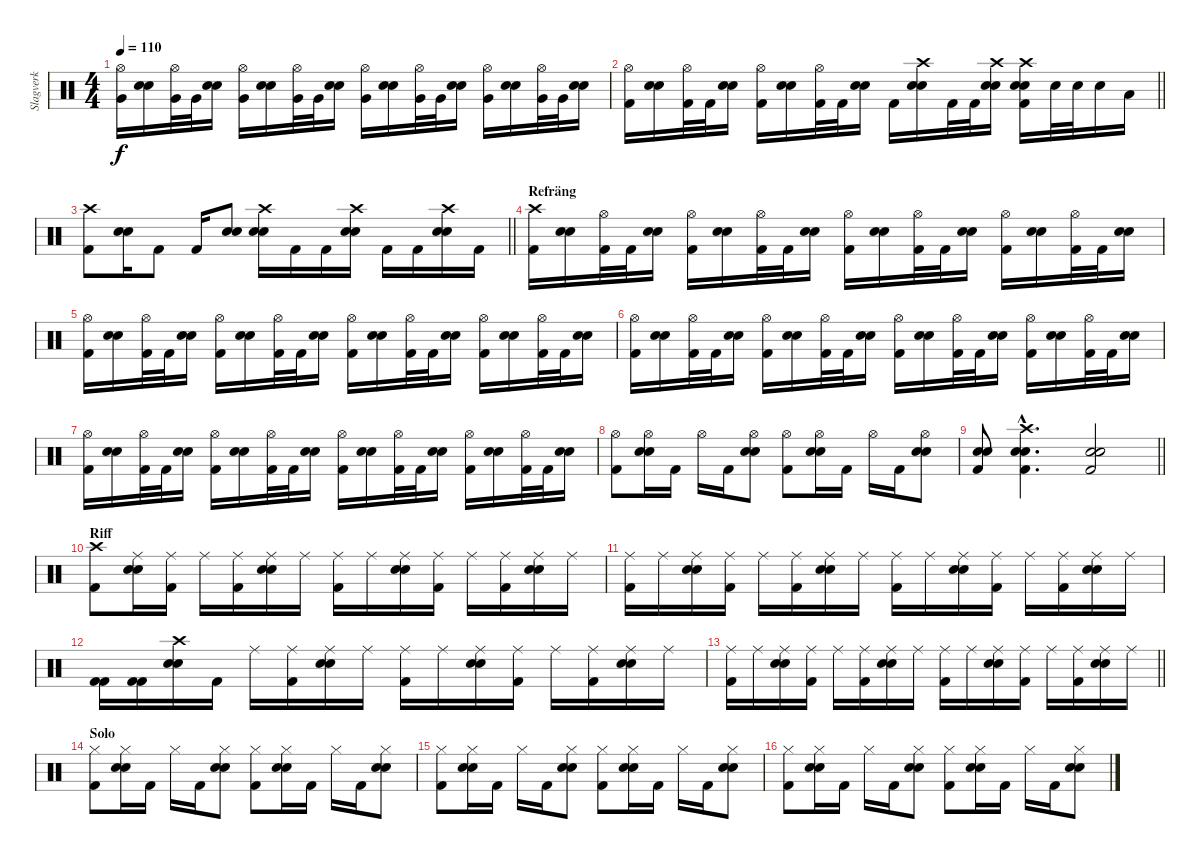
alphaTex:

\track ("Slagverk" "Slagverk") {instrument percussion}
\staff {score}
\articulation defaults
\ts (4 4)
\tempo 110
\clef neutral
\ks c
("Very Low Tom (hit)" "Hi-Hat (open)").16{dy f} ("Electric Snare (hit)" "Electric Snare (hit)").16 ("Very Low Tom (hit)" "Hi-Hat (open)").32 "Very Low Tom (hit)".32 ("Electric Snare (hit)" "Electric Snare (hit)").16 ("Very Low Tom (hit)" "Hi-Hat (open)").16 ("Electric Snare (hit)" "Electric Snare (hit)").16 ("Very Low Tom (hit)" "Hi-Hat (open)").32 "Very Low Tom (hit)".32 ("Electric Snare (hit)" "Electric Snare (hit)").16 ("Very Low Tom (hit)" "Hi-Hat (open)").16 ("Electric Snare (hit)" "Electric Snare (hit)").16 ("Very Low Tom (hit)" "Hi-Hat (open)").32 "Very Low Tom (hit)".32 ("Electric Snare (hit)" "Electric Snare (hit)").16 ("Very Low Tom (hit)" "Hi-Hat (open)").16 ("Electric Snare (hit)" "Electric Snare (hit)").16 ("Very Low Tom (hit)" "Hi-Hat (open)").32 "Very Low Tom (hit)".32 ("Electric Snare (hit)" "Electric Snare (hit)").16 |
\barLineRight lightlight
("Hi-Hat (open)" "Kick (hit) 2").16 ("Electric Snare (hit)" "Electric Snare (hit)").16 ("Hi-Hat (open)" "Kick (hit) 2").32 "Kick (hit) 2".32 ("Electric Snare (hit)" "Electric Snare (hit)").16 ("Hi-Hat (open)" "Kick (hit) 2").16 ("Electric Snare (hit)" "Electric Snare (hit)").16 ("Hi-Hat (open)" "Kick (hit) 2").32 "Kick (hit) 2".32 ("Electric Snare (hit)" "Electric Snare (hit)").16 "Kick (hit) 2".16 ("Crash high (hit)" "Electric Snare (hit)" "Electric Snare (hit)").16 "Kick (hit) 2".32 "Kick (hit) 2".32 ("Crash high (hit)" "Electric Snare (hit)" "Electric Snare (hit)").16 ("Crash high (hit)" "Electric Snare (hit)" "Electric Snare (hit)" "Kick (hit) 2").16 "Electric Snare (hit)".32 "Electric Snare (hit)".32 "Electric Snare (hit)".16 "Low Floor Tom (hit)".16 |
\barLineRight lightlight
("Crash high (hit)" "Kick (hit) 2").8 ("Electric Snare (hit)" "Electric Snare (hit)").16 "Kick (hit) 2".8 "Kick (hit) 2".16 ("Electric Snare (hit)" "Electric Snare (hit)").8 ("Crash high (hit)" "Electric Snare (hit)" "Electric Snare (hit)").16 "Kick (hit) 2".16 "Kick (hit) 2".16 ("Crash high (hit)" "Electric Snare (hit)" "Electric Snare (hit)").16 "Kick (hit) 2".16 "Kick (hit) 2".16 ("Crash high (hit)" "Electric Snare (hit)" "Electric Snare (hit)").16 "Kick (hit) 2".16 |
\section ("" "Refräng")
("Crash high (hit)" "Kick (hit) 2").16 ("Electric Snare (hit)" "Electric Snare (hit)").16 ("Hi-Hat (open)" "Kick (hit) 2").32 "Kick (hit) 2".32 ("Electric Snare (hit)" "Electric Snare (hit)").16 ("Hi-Hat (open)" "Kick (hit) 2").16 ("Electric Snare (hit)" "Electric Snare (hit)").16 ("Hi-Hat (open)" "Kick (hit) 2").32 "Kick (hit) 2".32 ("Electric Snare (hit)" "Electric Snare (hit)").16 ("Hi-Hat (open)" "Kick (hit) 2").16 ("Electric Snare (hit)" "Electric Snare (hit)").16 ("Hi-Hat (open)" "Kick (hit) 2").32 "Kick (hit) 2".32 ("Electric Snare (hit)" "Electric Snare (hit)").16 ("Hi-Hat (open)" "Kick (hit) 2").16 ("Electric Snare (hit)" "Electric Snare (hit)").16 ("Hi-Hat (open)" "Kick (hit) 2").32 "Kick (hit) 2".32 ("Electric Snare (hit)" "Electric Snare (hit)").16 |
("Hi-Hat (open)" "Kick (hit) 2").16 ("Electric Snare (hit)" "Electric Snare (hit)").16 ("Hi-Hat (open)" "Kick (hit) 2").32 "Kick (hit) 2".32 ("Electric Snare (hit)" "Electric Snare (hit)").16 ("Hi-Hat (open)" "Kick (hit) 2").16 ("Electric Snare (hit)" "Electric Snare (hit)").16 ("Hi-Hat (open)" "Kick (hit) 2").32 "Kick (hit) 2".32 ("Electric Snare (hit)" "Electric Snare (hit)").16 ("Hi-Hat (open)" "Kick (hit) 2").16 ("Electric Snare (hit)" "Electric Snare (hit)").16 ("Hi-Hat (open)" "Kick (hit) 2").32 "Kick (hit) 2".32 ("Electric Snare (hit)" "Electric Snare (hit)").16 ("Hi-Hat (open)" "Kick (hit) 2").16 ("Electric Snare (hit)" "Electric Snare (hit)").16 ("Hi-Hat (open)" "Kick (hit) 2").32 "Kick (hit) 2".32 ("Electric Snare (hit)" "Electric Snare (hit)").16 |
("Hi-Hat (open)" "Kick (hit) 2").16 ("Electric Snare (hit)" "Electric Snare (hit)").16 ("Hi-Hat (open)" "Kick (hit) 2").32 "Kick (hit) 2".32 ("Electric Snare (hit)" "Electric Snare (hit)").16 ("Hi-Hat (open)" "Kick (hit) 2").16 ("Electric Snare (hit)" "Electric Snare (hit)").16 ("Hi-Hat (open)" "Kick (hit) 2").32 "Kick (hit) 2".32 ("Electric Snare (hit)" "Electric Snare (hit)").16 ("Hi-Hat (open)" "Kick (hit) 2").16 ("Electric Snare (hit)" "Electric Snare (hit)").16 ("Hi-Hat (open)" "Kick (hit) 2").32 "Kick (hit) 2".32 ("Electric Snare (hit)" "Electric Snare (hit)").16 ("Hi-Hat (open)" "Kick (hit) 2").16 ("Electric Snare (hit)" "Electric Snare (hit)").16 ("Hi-Hat (open)" "Kick (hit) 2").32 "Kick (hit) 2".32 ("Electric Snare (hit)" "Electric Snare (hit)").16 |
("Hi-Hat (open)" "Kick (hit) 2").16 ("Electric Snare (hit)" "Electric Snare (hit)").16 ("Hi-Hat (open)" "Kick (hit) 2").32 "Kick (hit) 2".32 ("Electric Snare (hit)" "Electric Snare (hit)").16 ("Hi-Hat (open)" "Kick (hit) 2").16 ("Electric Snare (hit)" "Electric Snare (hit)").16 ("Hi-Hat (open)" "Kick (hit) 2").32 "Kick (hit) 2".32 ("Electric Snare (hit)" "Electric Snare (hit)").16 ("Hi-Hat (open)" "Kick (hit) 2").16 ("Electric Snare (hit)" "Electric Snare (hit)").16 ("Hi-Hat (open)" "Kick (hit) 2").32 "Kick (hit) 2".32 ("Electric Snare (hit)" "Electric Snare (hit)").16 ("Hi-Hat (open)" "Kick (hit) 2").16 ("Electric Snare (hit)" "Electric Snare (hit)").16 ("Hi-Hat (open)" "Kick (hit) 2").32 "Kick (hit) 2".32 ("Electric Snare (hit)" "Electric Snare (hit)").16 |
("Hi-Hat (open)" "Kick (hit) 2").8 ("Hi-Hat (open)" "Electric Snare (hit)" "Electric Snare (hit)").16 "Kick (hit) 2".16 "Hi-Hat (open)".16 "Kick (hit) 2".16 ("Hi-Hat (open)" "Electric Snare (hit)" "Electric Snare (hit)").8 ("Hi-Hat (open)" "Kick (hit) 2").8 ("Hi-Hat (open)" "Electric Snare (hit)" "Electric Snare (hit)").16 "Kick (hit) 2".16 "Hi-Hat (open)".16 "Kick (hit) 2".16 ("Hi-Hat (open)" "Electric Snare (hit)" "Electric Snare (hit)").8 |
\barLineRight lightlight
("Electric Snare (hit)" "Electric Snare (hit)" "Kick (hit) 2").8 ("Crash high (hit)"{hac} "Electric Snare (hit)"{hac} "Electric Snare (hit)"{hac} "Kick (hit) 2"{hac}).4{d} ("Electric Snare (hit)" "Electric Snare (hit)" "Kick (hit) 2").2 |
\section ("" "Riff")
("Crash high (hit)" "Kick (hit) 2").8 ("Ride (middle)" "Electric Snare (hit)" "Electric Snare (hit)").16 ("Ride (middle)" "Kick (hit) 2").16 "Ride (middle)".16 ("Ride (middle)" "Kick (hit) 2").16 ("Ride (middle)" "Electric Snare (hit)" "Electric Snare (hit)").16 "Ride (middle)".16 ("Ride (middle)" "Kick (hit) 2").16 "Ride (middle)".16 ("Ride (middle)" "Electric Snare (hit)" "Electric Snare (hit)").16 ("Ride (middle)" "Kick (hit) 2").16 "Ride (middle)".16 ("Ride (middle)" "Kick (hit) 2").16 ("Ride (middle)" "Electric Snare (hit)" "Electric Snare (hit)").16 "Ride (middle)".16 |
("Ride (middle)" "Kick (hit) 2").16 "Ride (middle)".16 ("Ride (middle)" "Electric Snare (hit)" "Electric Snare (hit)").16 ("Ride (middle)" "Kick (hit) 2").16 "Ride (middle)".16 ("Ride (middle)" "Kick (hit) 2").16 ("Ride (middle)" "Electric Snare (hit)" "Electric Snare (hit)").16 "Ride (middle)".16 ("Ride (middle)" "Kick (hit) 2").16 "Ride (middle)".16 ("Ride (middle)" "Electric Snare (hit)" "Electric Snare (hit)").16 ("Ride (middle)" "Kick (hit) 2").16 "Ride (middle)".16 ("Ride (middle)" "Kick (hit) 2").16 ("Ride (middle)" "Electric Snare (hit)" "Electric Snare (hit)").16 "Ride (middle)".16 |
("Kick (hit) 2" "Kick (hit) 2").16 ("Kick (hit) 2" "Kick (hit) 2").16 ("Crash high (hit)" "Electric Snare (hit)" "Electric Snare (hit)").16 "Kick (hit) 2".16 "Ride (middle)".16 ("Ride (middle)" "Kick (hit) 2").16 ("Ride (middle)" "Electric Snare (hit)" "Electric Snare (hit)").16 "Ride (middle)".16 ("Ride (middle)" "Kick (hit) 2").16 "Ride (middle)".16 ("Ride (middle)" "Electric Snare (hit)" "Electric Snare (hit)").16 ("Ride (middle)" "Kick (hit) 2").16 "Ride (middle)".16 ("Ride (middle)" "Kick (hit) 2").16 ("Ride (middle)" "Electric Snare (hit)" "Electric Snare (hit)").16 "Ride (middle)".16 |
\barLineRight lightlight
("Ride (middle)" "Kick (hit) 2").16 "Ride (middle)".16 ("Ride (middle)" "Electric Snare (hit)" "Electric Snare (hit)").16 ("Ride (middle)" "Kick (hit) 2").16 "Ride (middle)".16 ("Ride (middle)" "Kick (hit) 2").16 ("Ride (middle)" "Electric Snare (hit)" "Electric Snare (hit)").16 "Ride (middle)".16 ("Ride (middle)" "Kick (hit) 2").16 "Ride (middle)".16 ("Ride (middle)" "Electric Snare (hit)" "Electric Snare (hit)").16 ("Ride (middle)" "Kick (hit) 2").16 "Ride (middle)".16 ("Ride (middle)" "Kick (hit) 2").16 ("Ride (middle)" "Electric Snare (hit)" "Electric Snare (hit)").16 "Ride (middle)".16 |
\section ("" "Solo")
("Hi-Hat (closed)" "Kick (hit) 2").8 ("Hi-Hat (closed)" "Electric Snare (hit)" "Electric Snare (hit)").16 "Kick (hit) 2".16 "Hi-Hat (closed)".16 "Kick (hit) 2".16 ("Hi-Hat (closed)" "Electric Snare (hit)" "Electric Snare (hit)").8 ("Hi-Hat (closed)" "Kick (hit) 2").8 ("Hi-Hat (closed)" "Electric Snare (hit)" "Electric Snare (hit)").16 "Kick (hit) 2".16 "Hi-Hat (closed)".16 "Kick (hit) 2".16 ("Hi-Hat (closed)" "Electric Snare (hit)" "Electric Snare (hit)").8 |
("Hi-Hat (closed)" "Kick (hit) 2").8 ("Hi-Hat (closed)" "Electric Snare (hit)" "Electric Snare (hit)").16 "Kick (hit) 2".16 "Hi-Hat (closed)".16 "Kick (hit) 2".16 ("Hi-Hat (closed)" "Electric Snare (hit)" "Electric Snare (hit)").8 ("Hi-Hat (closed)" "Kick (hit) 2").8 ("Hi-Hat (closed)" "Electric Snare (hit)" "Electric Snare (hit)").16 "Kick (hit) 2".16 "Hi-Hat (closed)".16 "Kick (hit) 2".16 ("Hi-Hat (closed)" "Electric Snare (hit)" "Electric Snare (hit)").8 |
("Hi-Hat (closed)" "Kick (hit) 2").8 ("Hi-Hat (closed)" "Electric Snare (hit)" "Electric Snare (hit)").16 "Kick (hit) 2".16 "Hi-Hat (closed)".16 "Kick (hit) 2".16 ("Hi-Hat (closed)" "Electric Snare (hit)" "Electric Snare (hit)").8 ("Hi-Hat (closed)" "Kick (hit) 2").8 ("Hi-Hat (closed)" "Electric Snare (hit)" "Electric Snare (hit)").16 "Kick (hit) 2".16 "Hi-Hat (closed)".16 "Kick (hit) 2".16 ("Hi-Hat (closed)" "Electric Snare (hit)" "Electric Snare (hit)").8
